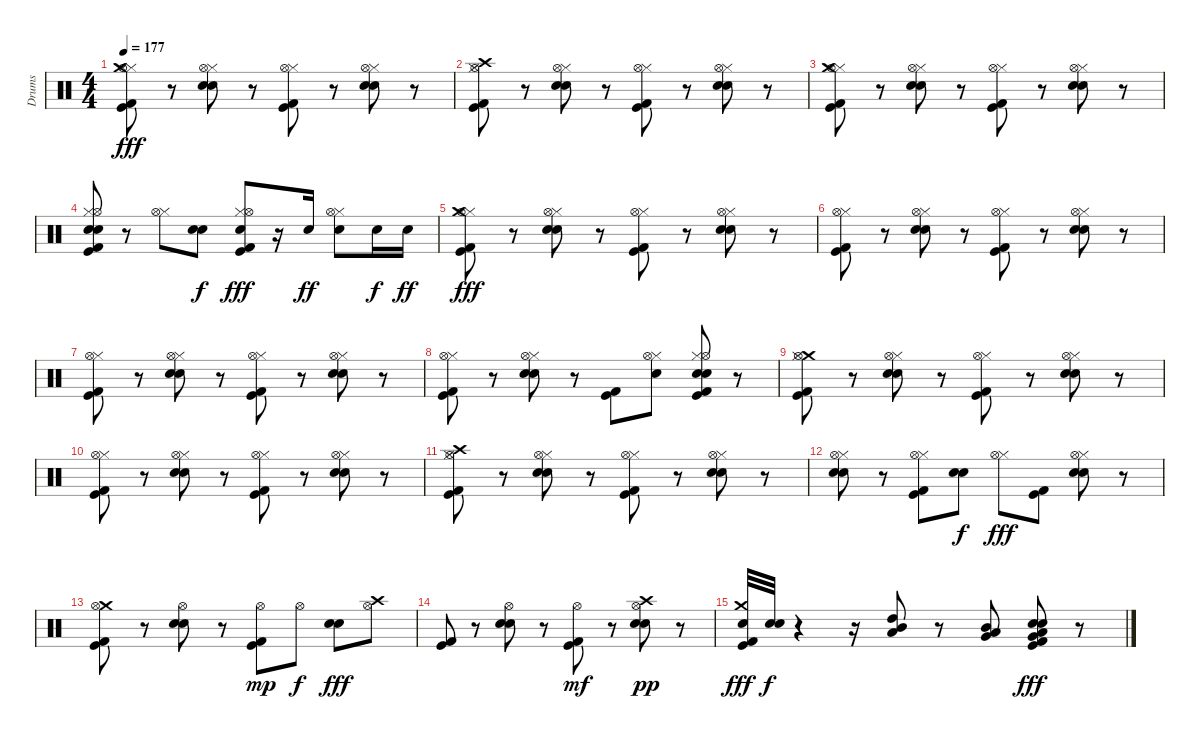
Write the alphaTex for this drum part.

\track ("Drums" "Drums") {instrument percussion}
\staff {score}
\articulation defaults
\ts (4 4)
\tempo 177
\clef neutral
\ks c
("Kick (hit) 2" "Kick (hit)" "Hi-Hat (closed)" "Hi-Hat (open)" "Crash medium (hit)").8{dy fff} r.8 ("Electric Snare (hit)" "Snare (hit) 2" "Hi-Hat (closed)" "Hi-Hat (open)").8 r.8 ("Kick (hit) 2" "Kick (hit)" "Hi-Hat (closed)" "Hi-Hat (open)").8 r.8 ("Electric Snare (hit)" "Snare (hit) 2" "Hi-Hat (closed)" "Hi-Hat (open)").8 r.8 |
("Kick (hit) 2" "Kick (hit)" "Hi-Hat (closed)" "Hi-Hat (open)" "Crash high (hit)").8 r.8 ("Electric Snare (hit)" "Snare (hit) 2" "Hi-Hat (closed)" "Hi-Hat (open)").8 r.8 ("Kick (hit) 2" "Kick (hit)" "Hi-Hat (closed)" "Hi-Hat (open)").8 r.8 ("Electric Snare (hit)" "Snare (hit) 2" "Hi-Hat (closed)" "Hi-Hat (open)").8 r.8 |
("Kick (hit) 2" "Kick (hit)" "Hi-Hat (closed)" "Hi-Hat (open)" "Crash medium (hit)").8 r.8 ("Electric Snare (hit)" "Snare (hit) 2" "Hi-Hat (closed)" "Hi-Hat (open)").8 r.8 ("Kick (hit) 2" "Kick (hit)" "Hi-Hat (closed)" "Hi-Hat (open)").8 r.8 ("Electric Snare (hit)" "Snare (hit) 2" "Hi-Hat (closed)" "Hi-Hat (open)").8 r.8 |
("Kick (hit) 2" "Kick (hit)" "Hi-Hat (closed)" "Hi-Hat (open)" "Snare (hit) 2" "Electric Snare (hit)").8 r.8 ("Hi-Hat (closed)" "Hi-Hat (open)").8 ("Electric Snare (hit)" "Snare (hit) 2").8{dy f} ("Kick (hit) 2" "Kick (hit)" "Hi-Hat (closed)" "Hi-Hat (open)" "Electric Snare (hit)").8{dy fff} r.16 "Electric Snare (hit)".16{dy ff} ("Hi-Hat (closed)" "Hi-Hat (open)" "Electric Snare (hit)").8 "Electric Snare (hit)".16{dy f} "Electric Snare (hit)".16{dy ff} |
("Kick (hit) 2" "Kick (hit)" "Hi-Hat (closed)" "Hi-Hat (open)" "Crash medium (hit)").8{dy fff} r.8 ("Electric Snare (hit)" "Snare (hit) 2" "Hi-Hat (closed)" "Hi-Hat (open)").8 r.8 ("Kick (hit) 2" "Kick (hit)" "Hi-Hat (closed)" "Hi-Hat (open)").8 r.8 ("Electric Snare (hit)" "Snare (hit) 2" "Hi-Hat (closed)" "Hi-Hat (open)").8 r.8 |
("Kick (hit) 2" "Kick (hit)" "Hi-Hat (closed)" "Hi-Hat (open)").8 r.8 ("Electric Snare (hit)" "Snare (hit) 2" "Hi-Hat (closed)" "Hi-Hat (open)").8 r.8 ("Kick (hit) 2" "Kick (hit)" "Hi-Hat (closed)" "Hi-Hat (open)").8 r.8 ("Electric Snare (hit)" "Snare (hit) 2" "Hi-Hat (closed)" "Hi-Hat (open)").8 r.8 |
("Kick (hit) 2" "Kick (hit)" "Hi-Hat (closed)" "Hi-Hat (open)").8 r.8 ("Electric Snare (hit)" "Snare (hit) 2" "Hi-Hat (closed)" "Hi-Hat (open)").8 r.8 ("Kick (hit) 2" "Kick (hit)" "Hi-Hat (closed)" "Hi-Hat (open)").8 r.8 ("Electric Snare (hit)" "Snare (hit) 2" "Hi-Hat (closed)" "Hi-Hat (open)").8 r.8 |
("Kick (hit) 2" "Kick (hit)" "Hi-Hat (closed)" "Hi-Hat (open)").8 r.8 ("Electric Snare (hit)" "Snare (hit) 2" "Hi-Hat (closed)" "Hi-Hat (open)").8 r.8 ("Kick (hit) 2" "Kick (hit)").8 ("Electric Snare (hit)" "Hi-Hat (closed)" "Hi-Hat (open)").8 ("Hi-Hat (closed)" "Hi-Hat (open)" "Kick (hit) 2" "Kick (hit)" "Electric Snare (hit)" "Snare (hit) 2").8 r.8 |
("Crash medium (hit)" "Kick (hit) 2" "Kick (hit)" "Hi-Hat (closed)" "Hi-Hat (open)").8 r.8 ("Electric Snare (hit)" "Snare (hit) 2" "Hi-Hat (closed)" "Hi-Hat (open)").8 r.8 ("Kick (hit) 2" "Kick (hit)" "Hi-Hat (closed)" "Hi-Hat (open)").8 r.8 ("Electric Snare (hit)" "Snare (hit) 2" "Hi-Hat (closed)" "Hi-Hat (open)").8 r.8 |
("Kick (hit) 2" "Kick (hit)" "Hi-Hat (closed)" "Hi-Hat (open)").8 r.8 ("Electric Snare (hit)" "Snare (hit) 2" "Hi-Hat (closed)" "Hi-Hat (open)").8 r.8 ("Kick (hit) 2" "Kick (hit)" "Hi-Hat (closed)" "Hi-Hat (open)").8 r.8 ("Electric Snare (hit)" "Snare (hit) 2" "Hi-Hat (closed)" "Hi-Hat (open)").8 r.8 |
("Crash high (hit)" "Kick (hit) 2" "Kick (hit)" "Hi-Hat (closed)" "Hi-Hat (open)").8 r.8 ("Electric Snare (hit)" "Snare (hit) 2" "Hi-Hat (closed)" "Hi-Hat (open)").8 r.8 ("Kick (hit) 2" "Kick (hit)" "Hi-Hat (closed)" "Hi-Hat (open)").8 r.8 ("Electric Snare (hit)" "Snare (hit) 2" "Hi-Hat (closed)" "Hi-Hat (open)").8 r.8 |
("Hi-Hat (closed)" "Hi-Hat (open)" "Electric Snare (hit)" "Snare (hit) 2").8 r.8 ("Hi-Hat (closed)" "Hi-Hat (open)" "Kick (hit) 2" "Kick (hit)").8 ("Electric Snare (hit)" "Snare (hit) 2").8{dy f} ("Hi-Hat (closed)" "Hi-Hat (open)").8{dy fff} ("Kick (hit) 2" "Kick (hit)").8 ("Electric Snare (hit)" "Snare (hit) 2" "Hi-Hat (closed)" "Hi-Hat (open)").8 r.8 |
("Kick (hit) 2" "Kick (hit)" "Crash medium (hit)" "Hi-Hat (open)").8 r.8 ("Hi-Hat (open)" "Electric Snare (hit)" "Snare (hit) 2").8 r.8 ("Kick (hit) 2" "Kick (hit)" "Hi-Hat (open)").8{dy mp} "Hi-Hat (open)".8{dy f} ("Electric Snare (hit)" "Snare (hit) 2").8{dy fff} ("Crash high (hit)" "Hi-Hat (open)").8 |
("Kick (hit) 2" "Kick (hit)").8 r.8 ("Electric Snare (hit)" "Snare (hit) 2" "Hi-Hat (open)").8 r.8 ("Kick (hit) 2" "Kick (hit)" "Hi-Hat (open)").8{dy mf} r.8 ("Electric Snare (hit)" "Snare (hit) 2" "Hi-Hat (open)" "Crash high (hit)").8{dy pp} r.8 |
("Crash medium (hit)" "Kick (hit) 2" "Kick (hit)" "Electric Snare (hit)").32{dy fff} ("Electric Snare (hit)" "Snare (hit) 2").32{dy f} r.4 r.16 ("Low Tom (hit)" "High Tom (hit)" "Mid Tom (hit)").8 r.8 ("Mid Tom (hit)" "Low Tom (hit)" "Very Low Tom (hit)").8 ("Electric Snare (hit)" "Snare (hit) 2" "Kick (hit)" "Kick (hit) 2" "Low Tom (hit)" "Very Low Tom (hit)").8{dy fff} r.8
